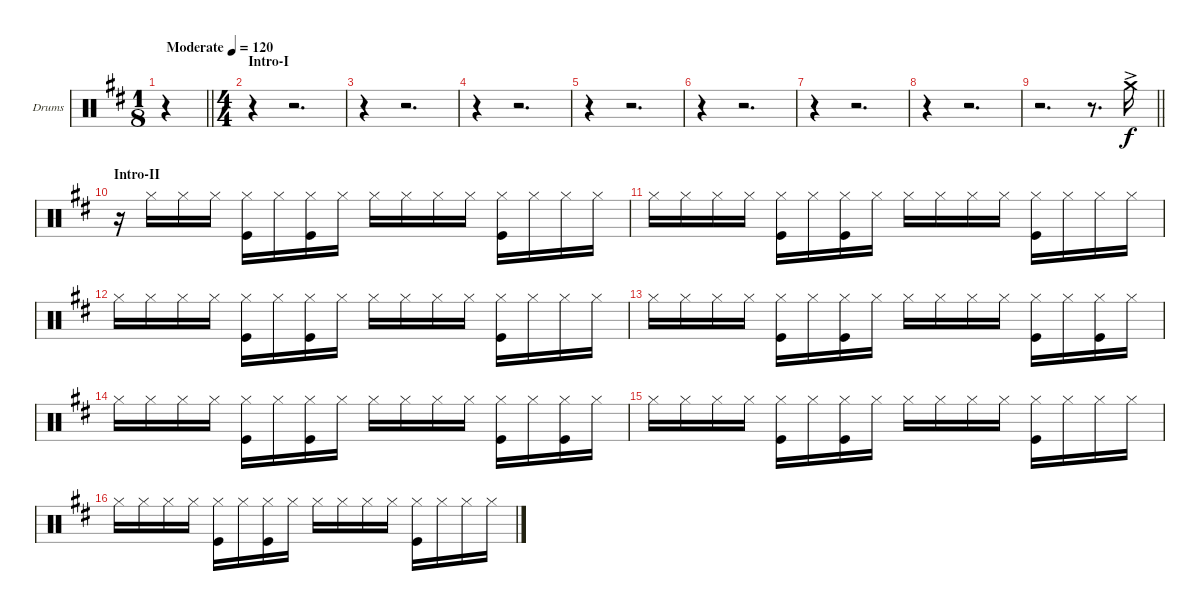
\bracketExtendMode groupsimilarinstruments
\firstSystemTrackNameOrientation horizontal
\otherSystemsTrackNameOrientation horizontal
\track ("Drumkit" "Drums") {instrument percussion}
\staff {score}
\articulation defaults
\ts (1 8)
\beaming (8 1)
\tempo (120 "Moderate")
\clef neutral
\barLineRight lightlight
\ks d
r.4{dy f} |
\ts (4 4)
\beaming (8 2 2 2 2)
\section ("" "Intro-I")
r.4 r.2{d} |
r.4 r.2{d} |
r.4 r.2{d} |
r.4 r.2{d} |
r.4 r.2{d} |
r.4 r.2{d} |
r.4 r.2{d} |
\barLineRight lightlight
r.2{d} r.8{d} "Crash medium (hit)"{ac}.16 |
\section ("" "Intro-II")
r.16 "Hi-Hat (closed)".16 "Hi-Hat (closed)".16 "Hi-Hat (closed)".16 ("Hi-Hat (closed)" "Kick (hit)").16 "Hi-Hat (closed)".16 ("Hi-Hat (closed)" "Kick (hit)").16 "Hi-Hat (closed)".16 "Hi-Hat (closed)".16 "Hi-Hat (closed)".16 "Hi-Hat (closed)".16 "Hi-Hat (closed)".16 ("Hi-Hat (closed)" "Kick (hit)").16 "Hi-Hat (closed)".16 "Hi-Hat (closed)".16 "Hi-Hat (closed)".16 |
"Hi-Hat (closed)".16 "Hi-Hat (closed)".16 "Hi-Hat (closed)".16 "Hi-Hat (closed)".16 ("Hi-Hat (closed)" "Kick (hit)").16 "Hi-Hat (closed)".16 ("Hi-Hat (closed)" "Kick (hit)").16 "Hi-Hat (closed)".16 "Hi-Hat (closed)".16 "Hi-Hat (closed)".16 "Hi-Hat (closed)".16 "Hi-Hat (closed)".16 ("Hi-Hat (closed)" "Kick (hit)").16 "Hi-Hat (closed)".16 "Hi-Hat (closed)".16 "Hi-Hat (closed)".16 |
"Hi-Hat (closed)".16 "Hi-Hat (closed)".16 "Hi-Hat (closed)".16 "Hi-Hat (closed)".16 ("Hi-Hat (closed)" "Kick (hit)").16 "Hi-Hat (closed)".16 ("Hi-Hat (closed)" "Kick (hit)").16 "Hi-Hat (closed)".16 "Hi-Hat (closed)".16 "Hi-Hat (closed)".16 "Hi-Hat (closed)".16 "Hi-Hat (closed)".16 ("Hi-Hat (closed)" "Kick (hit)").16 "Hi-Hat (closed)".16 "Hi-Hat (closed)".16 "Hi-Hat (closed)".16 |
"Hi-Hat (closed)".16 "Hi-Hat (closed)".16 "Hi-Hat (closed)".16 "Hi-Hat (closed)".16 ("Hi-Hat (closed)" "Kick (hit)").16 "Hi-Hat (closed)".16 ("Hi-Hat (closed)" "Kick (hit)").16 "Hi-Hat (closed)".16 "Hi-Hat (closed)".16 "Hi-Hat (closed)".16 "Hi-Hat (closed)".16 "Hi-Hat (closed)".16 ("Hi-Hat (closed)" "Kick (hit)").16 "Hi-Hat (closed)".16 ("Hi-Hat (closed)" "Kick (hit)").16 "Hi-Hat (closed)".16 |
"Hi-Hat (closed)".16 "Hi-Hat (closed)".16 "Hi-Hat (closed)".16 "Hi-Hat (closed)".16 ("Hi-Hat (closed)" "Kick (hit)").16 "Hi-Hat (closed)".16 ("Hi-Hat (closed)" "Kick (hit)").16 "Hi-Hat (closed)".16 "Hi-Hat (closed)".16 "Hi-Hat (closed)".16 "Hi-Hat (closed)".16 "Hi-Hat (closed)".16 ("Hi-Hat (closed)" "Kick (hit)").16 "Hi-Hat (closed)".16 ("Hi-Hat (closed)" "Kick (hit)").16 "Hi-Hat (closed)".16 |
"Hi-Hat (closed)".16 "Hi-Hat (closed)".16 "Hi-Hat (closed)".16 "Hi-Hat (closed)".16 ("Hi-Hat (closed)" "Kick (hit)").16 "Hi-Hat (closed)".16 ("Hi-Hat (closed)" "Kick (hit)").16 "Hi-Hat (closed)".16 "Hi-Hat (closed)".16 "Hi-Hat (closed)".16 "Hi-Hat (closed)".16 "Hi-Hat (closed)".16 ("Hi-Hat (closed)" "Kick (hit)").16 "Hi-Hat (closed)".16 "Hi-Hat (closed)".16 "Hi-Hat (closed)".16 |
"Hi-Hat (closed)".16 "Hi-Hat (closed)".16 "Hi-Hat (closed)".16 "Hi-Hat (closed)".16 ("Hi-Hat (closed)" "Kick (hit)").16 "Hi-Hat (closed)".16 ("Hi-Hat (closed)" "Kick (hit)").16 "Hi-Hat (closed)".16 "Hi-Hat (closed)".16 "Hi-Hat (closed)".16 "Hi-Hat (closed)".16 "Hi-Hat (closed)".16 ("Hi-Hat (closed)" "Kick (hit)").16 "Hi-Hat (closed)".16 "Hi-Hat (closed)".16 "Hi-Hat (closed)".16
